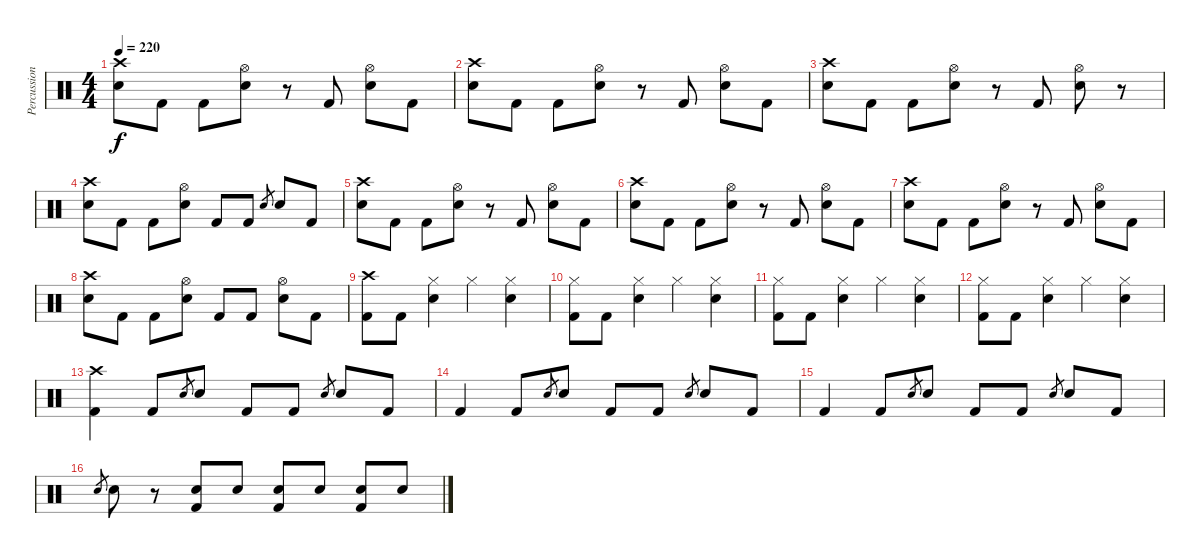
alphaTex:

\track ("Percussion" "Percussion") {instrument percussion}
\staff {score}
\articulation defaults
\ts (4 4)
\tempo 220
\clef neutral
\ks c
("Crash high (hit)" "Electric Snare (hit)").8{dy f} "Kick (hit) 2".8 "Kick (hit) 2".8 ("Hi-Hat (open)" "Electric Snare (hit)").8 r.8 "Kick (hit) 2".8 ("Hi-Hat (open)" "Electric Snare (hit)").8 "Kick (hit) 2".8 |
("Crash high (hit)" "Electric Snare (hit)").8 "Kick (hit) 2".8 "Kick (hit) 2".8 ("Hi-Hat (open)" "Electric Snare (hit)").8 r.8 "Kick (hit) 2".8 ("Hi-Hat (open)" "Electric Snare (hit)").8 "Kick (hit) 2".8 |
("Crash high (hit)" "Electric Snare (hit)").8 "Kick (hit) 2".8 "Kick (hit) 2".8 ("Hi-Hat (open)" "Electric Snare (hit)").8 r.8 "Kick (hit) 2".8 ("Hi-Hat (open)" "Electric Snare (hit)").8 r.8 |
("Crash high (hit)" "Electric Snare (hit)").8 "Kick (hit) 2".8 "Kick (hit) 2".8 ("Hi-Hat (open)" "Electric Snare (hit)").8 "Kick (hit) 2".8 "Kick (hit) 2".8 "Electric Snare (hit)".8{gr} "Electric Snare (hit)".8 "Kick (hit) 2".8 |
("Crash high (hit)" "Electric Snare (hit)").8 "Kick (hit) 2".8 "Kick (hit) 2".8 ("Hi-Hat (open)" "Electric Snare (hit)").8 r.8 "Kick (hit) 2".8 ("Hi-Hat (open)" "Electric Snare (hit)").8 "Kick (hit) 2".8 |
("Crash high (hit)" "Electric Snare (hit)").8 "Kick (hit) 2".8 "Kick (hit) 2".8 ("Hi-Hat (open)" "Electric Snare (hit)").8 r.8 "Kick (hit) 2".8 ("Hi-Hat (open)" "Electric Snare (hit)").8 "Kick (hit) 2".8 |
("Crash high (hit)" "Electric Snare (hit)").8 "Kick (hit) 2".8 "Kick (hit) 2".8 ("Hi-Hat (open)" "Electric Snare (hit)").8 r.8 "Kick (hit) 2".8 ("Hi-Hat (open)" "Electric Snare (hit)").8 "Kick (hit) 2".8 |
("Crash high (hit)" "Electric Snare (hit)").8 "Kick (hit) 2".8 "Kick (hit) 2".8 ("Hi-Hat (open)" "Electric Snare (hit)").8 "Kick (hit) 2".8 "Kick (hit) 2".8 ("Hi-Hat (open)" "Electric Snare (hit)").8 "Kick (hit) 2".8 |
("Crash high (hit)" "Kick (hit) 2").8 "Kick (hit) 2".8 ("Hi-Hat (closed)" "Electric Snare (hit)").4 "Hi-Hat (closed)".4 ("Hi-Hat (closed)" "Electric Snare (hit)").4 |
("Hi-Hat (closed)" "Kick (hit) 2").8 "Kick (hit) 2".8 ("Hi-Hat (closed)" "Electric Snare (hit)").4 "Hi-Hat (closed)".4 ("Hi-Hat (closed)" "Electric Snare (hit)").4 |
("Hi-Hat (closed)" "Kick (hit) 2").8 "Kick (hit) 2".8 ("Hi-Hat (closed)" "Electric Snare (hit)").4 "Hi-Hat (closed)".4 ("Hi-Hat (closed)" "Electric Snare (hit)").4 |
("Hi-Hat (closed)" "Kick (hit) 2").8 "Kick (hit) 2".8 ("Hi-Hat (closed)" "Electric Snare (hit)").4 "Hi-Hat (closed)".4 ("Hi-Hat (closed)" "Electric Snare (hit)").4 |
("Crash high (hit)" "Kick (hit) 2").4 "Kick (hit) 2".8 "Electric Snare (hit)".8{gr} "Electric Snare (hit)".8 "Kick (hit) 2".8 "Kick (hit) 2".8 "Electric Snare (hit)".8{gr} "Electric Snare (hit)".8 "Kick (hit) 2".8 |
"Kick (hit) 2".4 "Kick (hit) 2".8 "Electric Snare (hit)".8{gr} "Electric Snare (hit)".8 "Kick (hit) 2".8 "Kick (hit) 2".8 "Electric Snare (hit)".8{gr} "Electric Snare (hit)".8 "Kick (hit) 2".8 |
"Kick (hit) 2".4 "Kick (hit) 2".8 "Electric Snare (hit)".8{gr} "Electric Snare (hit)".8 "Kick (hit) 2".8 "Kick (hit) 2".8 "Electric Snare (hit)".8{gr} "Electric Snare (hit)".8 "Kick (hit) 2".8 |
"Electric Snare (hit)".8{gr} "Electric Snare (hit)".8 r.8 ("Electric Snare (hit)" "Kick (hit) 2").8 "Electric Snare (hit)".8 ("Electric Snare (hit)" "Kick (hit) 2").8 "Electric Snare (hit)".8 ("Electric Snare (hit)" "Kick (hit) 2").8 "Electric Snare (hit)".8
